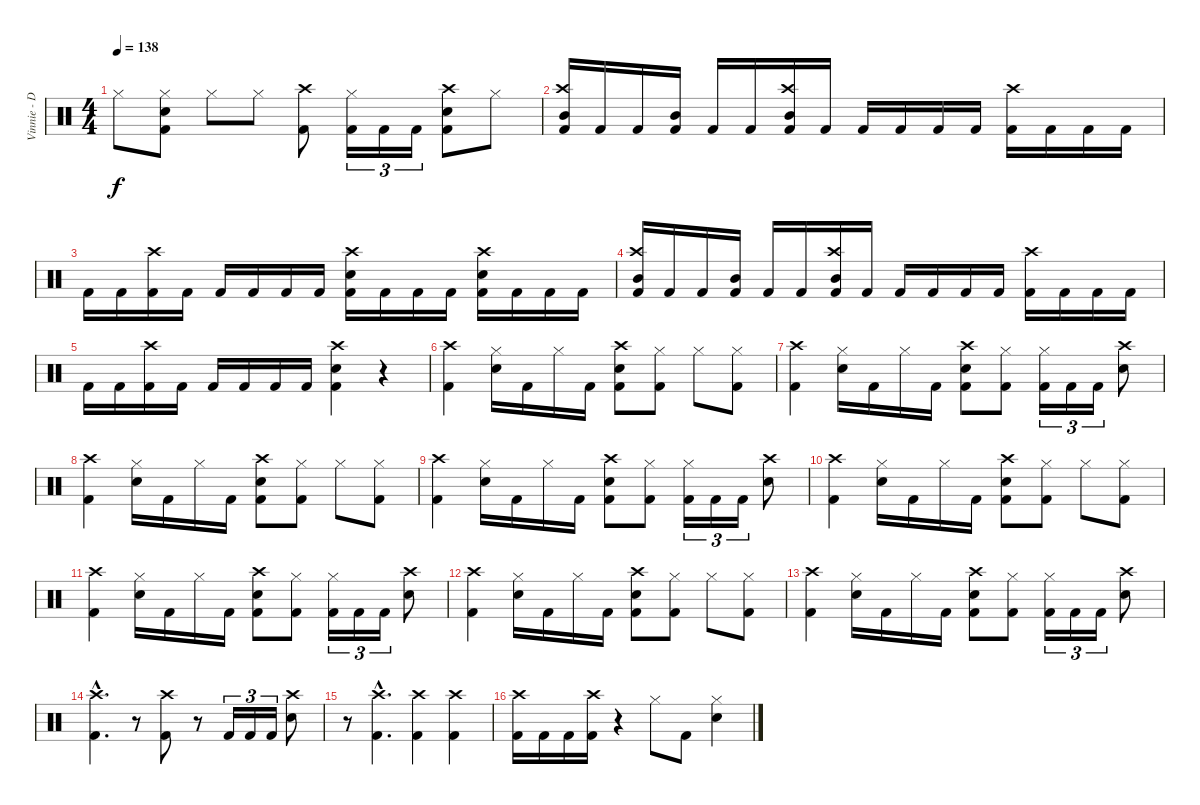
\track ("Vinnie - Drums" "Vinnie - D") {instrument percussion}
\staff {score}
\articulation defaults
\ts (4 4)
\tempo 138
\clef neutral
\ks c "Hi-Hat (closed)".8{dy f}
("Hi-Hat (closed)" "Electric Snare (hit)" "Kick (hit) 2").8 "Hi-Hat (closed)".8 "Hi-Hat (closed)".8 ("Crash high (hit)" "Kick (hit) 2").8 ("Hi-Hat (closed)" "Kick (hit) 2").16{tu (3 2)} "Kick (hit) 2".16{tu (3 2)} "Kick (hit) 2".16{tu (3 2)} ("Crash high (hit)" "Electric Snare (hit)" "Kick (hit) 2").8 "Hi-Hat (closed)".8 |
("Crash high (hit)" "Mid Tom (hit)" "Kick (hit) 2").16 "Kick (hit) 2".16 "Kick (hit) 2".16 ("Mid Tom (hit)" "Kick (hit) 2").16 "Kick (hit) 2".16 "Kick (hit) 2".16 ("Crash high (hit)" "Mid Tom (hit)" "Kick (hit) 2").16 "Kick (hit) 2".16 "Kick (hit) 2".16 "Kick (hit) 2".16 "Kick (hit) 2".16 "Kick (hit) 2".16 ("Crash high (hit)" "Kick (hit) 2").16 "Kick (hit) 2".16 "Kick (hit) 2".16 "Kick (hit) 2".16 |
"Kick (hit) 2".16 "Kick (hit) 2".16 ("Crash high (hit)" "Kick (hit) 2").16 "Kick (hit) 2".16 "Kick (hit) 2".16 "Kick (hit) 2".16 "Kick (hit) 2".16 "Kick (hit) 2".16 ("Crash high (hit)" "Electric Snare (hit)" "Kick (hit) 2").16 "Kick (hit) 2".16 "Kick (hit) 2".16 "Kick (hit) 2".16 ("Crash high (hit)" "Electric Snare (hit)" "Kick (hit) 2").16 "Kick (hit) 2".16 "Kick (hit) 2".16 "Kick (hit) 2".16 |
("Crash high (hit)" "Mid Tom (hit)" "Kick (hit) 2").16 "Kick (hit) 2".16 "Kick (hit) 2".16 ("Mid Tom (hit)" "Kick (hit) 2").16 "Kick (hit) 2".16 "Kick (hit) 2".16 ("Crash high (hit)" "Mid Tom (hit)" "Kick (hit) 2").16 "Kick (hit) 2".16 "Kick (hit) 2".16 "Kick (hit) 2".16 "Kick (hit) 2".16 "Kick (hit) 2".16 ("Crash high (hit)" "Kick (hit) 2").16 "Kick (hit) 2".16 "Kick (hit) 2".16 "Kick (hit) 2".16 |
"Kick (hit) 2".16 "Kick (hit) 2".16 ("Crash high (hit)" "Kick (hit) 2").16 "Kick (hit) 2".16 "Kick (hit) 2".16 "Kick (hit) 2".16 "Kick (hit) 2".16 "Kick (hit) 2".16 ("Crash high (hit)" "Electric Snare (hit)" "Kick (hit) 2").4 r.4 |
("Crash high (hit)" "Kick (hit) 2").4 ("Hi-Hat (closed)" "Electric Snare (hit)").16 "Kick (hit) 2".16 "Hi-Hat (closed)".16 "Kick (hit) 2".16 ("Crash high (hit)" "Electric Snare (hit)" "Kick (hit) 2").8 ("Hi-Hat (closed)" "Kick (hit) 2").8 "Hi-Hat (closed)".8 ("Hi-Hat (closed)" "Kick (hit) 2").8 |
("Crash high (hit)" "Kick (hit) 2").4 ("Hi-Hat (closed)" "Electric Snare (hit)").16 "Kick (hit) 2".16 "Hi-Hat (closed)".16 "Kick (hit) 2".16 ("Crash high (hit)" "Electric Snare (hit)" "Kick (hit) 2").8 ("Hi-Hat (closed)" "Kick (hit) 2").8 ("Hi-Hat (closed)" "Kick (hit) 2").16{tu (3 2)} "Kick (hit) 2".16{tu (3 2)} "Kick (hit) 2".16{tu (3 2)} ("Crash high (hit)" "Electric Snare (hit)").8 |
("Crash high (hit)" "Kick (hit) 2").4 ("Hi-Hat (closed)" "Electric Snare (hit)").16 "Kick (hit) 2".16 "Hi-Hat (closed)".16 "Kick (hit) 2".16 ("Crash high (hit)" "Electric Snare (hit)" "Kick (hit) 2").8 ("Hi-Hat (closed)" "Kick (hit) 2").8 "Hi-Hat (closed)".8 ("Hi-Hat (closed)" "Kick (hit) 2").8 |
("Crash high (hit)" "Kick (hit) 2").4 ("Hi-Hat (closed)" "Electric Snare (hit)").16 "Kick (hit) 2".16 "Hi-Hat (closed)".16 "Kick (hit) 2".16 ("Crash high (hit)" "Electric Snare (hit)" "Kick (hit) 2").8 ("Hi-Hat (closed)" "Kick (hit) 2").8 ("Hi-Hat (closed)" "Kick (hit) 2").16{tu (3 2)} "Kick (hit) 2".16{tu (3 2)} "Kick (hit) 2".16{tu (3 2)} ("Crash high (hit)" "Electric Snare (hit)").8 |
("Crash high (hit)" "Kick (hit) 2").4 ("Hi-Hat (closed)" "Electric Snare (hit)").16 "Kick (hit) 2".16 "Hi-Hat (closed)".16 "Kick (hit) 2".16 ("Crash high (hit)" "Electric Snare (hit)" "Kick (hit) 2").8 ("Hi-Hat (closed)" "Kick (hit) 2").8 "Hi-Hat (closed)".8 ("Hi-Hat (closed)" "Kick (hit) 2").8 |
("Crash high (hit)" "Kick (hit) 2").4 ("Hi-Hat (closed)" "Electric Snare (hit)").16 "Kick (hit) 2".16 "Hi-Hat (closed)".16 "Kick (hit) 2".16 ("Crash high (hit)" "Electric Snare (hit)" "Kick (hit) 2").8 ("Hi-Hat (closed)" "Kick (hit) 2").8 ("Hi-Hat (closed)" "Kick (hit) 2").16{tu (3 2)} "Kick (hit) 2".16{tu (3 2)} "Kick (hit) 2".16{tu (3 2)} ("Crash high (hit)" "Electric Snare (hit)").8 |
("Crash high (hit)" "Kick (hit) 2").4 ("Hi-Hat (closed)" "Electric Snare (hit)").16 "Kick (hit) 2".16 "Hi-Hat (closed)".16 "Kick (hit) 2".16 ("Crash high (hit)" "Electric Snare (hit)" "Kick (hit) 2").8 ("Hi-Hat (closed)" "Kick (hit) 2").8 "Hi-Hat (closed)".8 ("Hi-Hat (closed)" "Kick (hit) 2").8 |
("Crash high (hit)" "Kick (hit) 2").4 ("Hi-Hat (closed)" "Electric Snare (hit)").16 "Kick (hit) 2".16 "Hi-Hat (closed)".16 "Kick (hit) 2".16 ("Crash high (hit)" "Electric Snare (hit)" "Kick (hit) 2").8 ("Hi-Hat (closed)" "Kick (hit) 2").8 ("Hi-Hat (closed)" "Kick (hit) 2").16{tu (3 2)} "Kick (hit) 2".16{tu (3 2)} "Kick (hit) 2".16{tu (3 2)} ("Crash high (hit)" "Electric Snare (hit)").8 |
("Crash high (hit)"{hac} "Kick (hit) 2"{hac}).4{d} r.8 ("Crash high (hit)" "Kick (hit) 2").8 r.8 "Kick (hit) 2".16{tu (3 2)} "Kick (hit) 2".16{tu (3 2)} "Kick (hit) 2".16{tu (3 2)} ("Crash high (hit)" "Electric Snare (hit)").8 |
r.8 ("Crash high (hit)"{hac} "Kick (hit) 2"{hac}).4{d} ("Crash high (hit)" "Kick (hit) 2").4 ("Crash high (hit)" "Kick (hit) 2").4 |
("Crash high (hit)" "Kick (hit) 2").16 "Kick (hit) 2".16 "Kick (hit) 2".16 ("Crash high (hit)" "Kick (hit) 2").16 r.4 "Hi-Hat (closed)".8 "Kick (hit) 2".8 ("Hi-Hat (closed)" "Electric Snare (hit)").4
